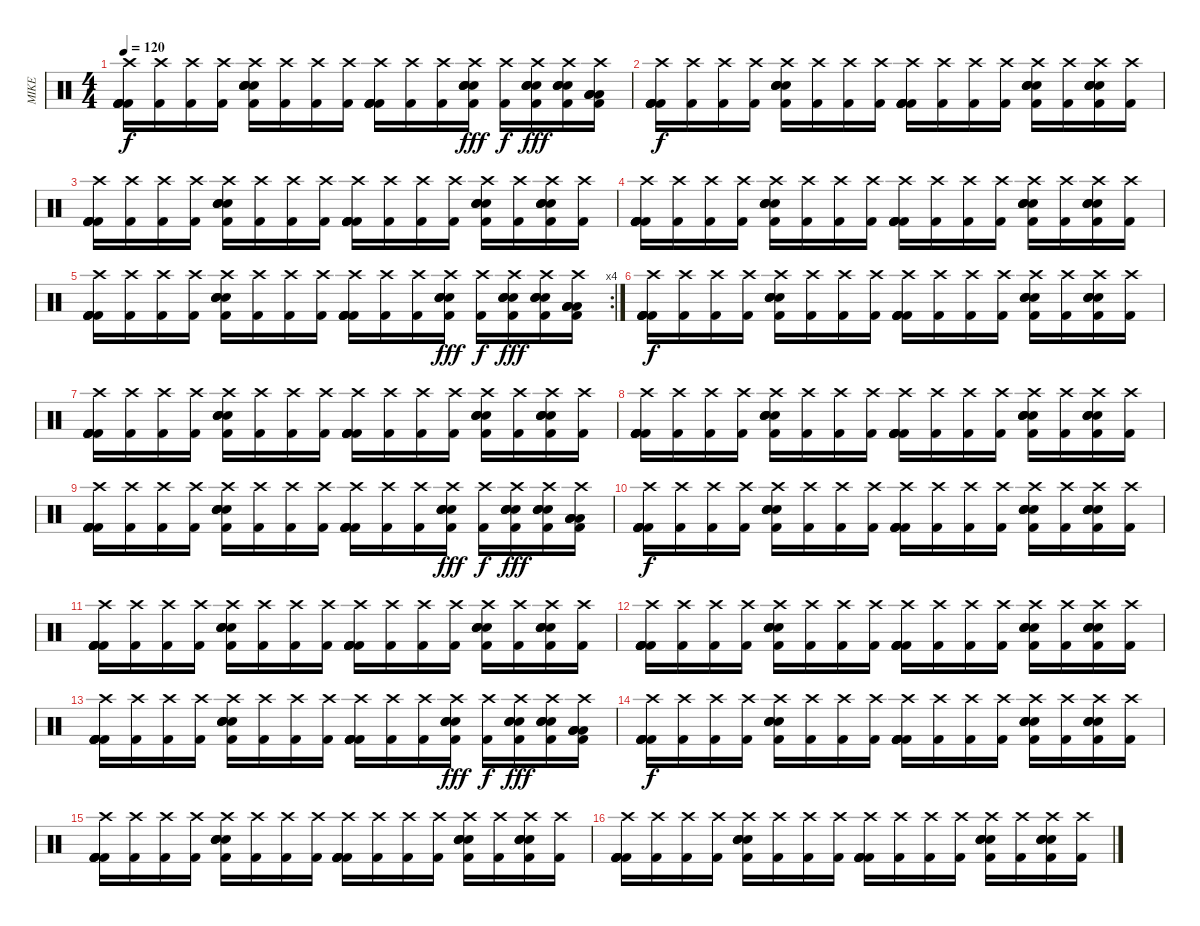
\track ("MIKE" "MIKE") {instrument percussion}
\staff {score}
\articulation defaults
\ts (4 4)
\tempo 120
\clef neutral
\ks c
("Kick (hit) 2" "Kick (hit) 2" "Kick (hit) 2" "Kick (hit) 2" "Kick (hit) 2" "Crash high (hit)").16{dy f} ("Kick (hit) 2" "Crash high (hit)").16 ("Kick (hit) 2" "Crash high (hit)").16 ("Kick (hit) 2" "Crash high (hit)").16 ("Electric Snare (hit)" "Electric Snare (hit)" "Electric Snare (hit)" "Electric Snare (hit)" "Kick (hit) 2" "Crash high (hit)").16 ("Kick (hit) 2" "Crash high (hit)").16 ("Kick (hit) 2" "Crash high (hit)").16 ("Kick (hit) 2" "Crash high (hit)").16 ("Kick (hit) 2" "Kick (hit) 2" "Kick (hit) 2" "Kick (hit) 2" "Kick (hit) 2" "Crash high (hit)").16 ("Kick (hit) 2" "Crash high (hit)").16 ("Kick (hit) 2" "Crash high (hit)").16 ("Electric Snare (hit)" "Electric Snare (hit)" "Electric Snare (hit)" "Electric Snare (hit)" "Kick (hit) 2" "Crash high (hit)").16{dy fff} ("Kick (hit) 2" "Crash high (hit)").16{dy f} ("Electric Snare (hit)" "Electric Snare (hit)" "Electric Snare (hit)" "Electric Snare (hit)" "Kick (hit) 2" "Crash high (hit)").16{dy fff} ("Electric Snare (hit)" "Electric Snare (hit)" "Electric Snare (hit)" "Electric Snare (hit)" "Kick (hit) 2" "Crash high (hit)").16 ("Low Floor Tom (hit)" "Low Floor Tom (hit)" "Low Floor Tom (hit)" "Low Floor Tom (hit)" "Kick (hit) 2" "Crash high (hit)").16 |
("Kick (hit) 2" "Kick (hit) 2" "Kick (hit) 2" "Kick (hit) 2" "Kick (hit) 2" "Crash high (hit)").16{dy f} ("Kick (hit) 2" "Crash high (hit)").16 ("Kick (hit) 2" "Crash high (hit)").16 ("Kick (hit) 2" "Crash high (hit)").16 ("Electric Snare (hit)" "Electric Snare (hit)" "Electric Snare (hit)" "Electric Snare (hit)" "Kick (hit) 2" "Crash high (hit)").16 ("Kick (hit) 2" "Crash high (hit)").16 ("Kick (hit) 2" "Crash high (hit)").16 ("Kick (hit) 2" "Crash high (hit)").16 ("Kick (hit) 2" "Kick (hit) 2" "Kick (hit) 2" "Kick (hit) 2" "Kick (hit) 2" "Crash high (hit)").16 ("Kick (hit) 2" "Crash high (hit)").16 ("Kick (hit) 2" "Crash high (hit)").16 ("Kick (hit) 2" "Crash high (hit)").16 ("Electric Snare (hit)" "Electric Snare (hit)" "Electric Snare (hit)" "Electric Snare (hit)" "Kick (hit) 2" "Crash high (hit)").16 ("Kick (hit) 2" "Crash high (hit)").16 ("Electric Snare (hit)" "Electric Snare (hit)" "Electric Snare (hit)" "Electric Snare (hit)" "Kick (hit) 2" "Crash high (hit)").16 ("Kick (hit) 2" "Crash high (hit)").16 |
("Kick (hit) 2" "Kick (hit) 2" "Kick (hit) 2" "Kick (hit) 2" "Kick (hit) 2" "Crash high (hit)").16 ("Kick (hit) 2" "Crash high (hit)").16 ("Kick (hit) 2" "Crash high (hit)").16 ("Kick (hit) 2" "Crash high (hit)").16 ("Electric Snare (hit)" "Electric Snare (hit)" "Electric Snare (hit)" "Electric Snare (hit)" "Kick (hit) 2" "Crash high (hit)").16 ("Kick (hit) 2" "Crash high (hit)").16 ("Kick (hit) 2" "Crash high (hit)").16 ("Kick (hit) 2" "Crash high (hit)").16 ("Kick (hit) 2" "Kick (hit) 2" "Kick (hit) 2" "Kick (hit) 2" "Kick (hit) 2" "Crash high (hit)").16 ("Kick (hit) 2" "Crash high (hit)").16 ("Kick (hit) 2" "Crash high (hit)").16 ("Kick (hit) 2" "Crash high (hit)").16 ("Electric Snare (hit)" "Electric Snare (hit)" "Electric Snare (hit)" "Electric Snare (hit)" "Kick (hit) 2" "Crash high (hit)").16 ("Kick (hit) 2" "Crash high (hit)").16 ("Electric Snare (hit)" "Electric Snare (hit)" "Electric Snare (hit)" "Electric Snare (hit)" "Kick (hit) 2" "Crash high (hit)").16 ("Kick (hit) 2" "Crash high (hit)").16 |
("Kick (hit) 2" "Kick (hit) 2" "Kick (hit) 2" "Kick (hit) 2" "Kick (hit) 2" "Crash high (hit)").16 ("Kick (hit) 2" "Crash high (hit)").16 ("Kick (hit) 2" "Crash high (hit)").16 ("Kick (hit) 2" "Crash high (hit)").16 ("Electric Snare (hit)" "Electric Snare (hit)" "Electric Snare (hit)" "Electric Snare (hit)" "Kick (hit) 2" "Crash high (hit)").16 ("Kick (hit) 2" "Crash high (hit)").16 ("Kick (hit) 2" "Crash high (hit)").16 ("Kick (hit) 2" "Crash high (hit)").16 ("Kick (hit) 2" "Kick (hit) 2" "Kick (hit) 2" "Kick (hit) 2" "Kick (hit) 2" "Crash high (hit)").16 ("Kick (hit) 2" "Crash high (hit)").16 ("Kick (hit) 2" "Crash high (hit)").16 ("Kick (hit) 2" "Crash high (hit)").16 ("Electric Snare (hit)" "Electric Snare (hit)" "Electric Snare (hit)" "Electric Snare (hit)" "Kick (hit) 2" "Crash high (hit)").16 ("Kick (hit) 2" "Crash high (hit)").16 ("Electric Snare (hit)" "Electric Snare (hit)" "Electric Snare (hit)" "Electric Snare (hit)" "Kick (hit) 2" "Crash high (hit)").16 ("Kick (hit) 2" "Crash high (hit)").16 |
\rc 4
("Kick (hit) 2" "Kick (hit) 2" "Kick (hit) 2" "Kick (hit) 2" "Kick (hit) 2" "Crash high (hit)").16 ("Kick (hit) 2" "Crash high (hit)").16 ("Kick (hit) 2" "Crash high (hit)").16 ("Kick (hit) 2" "Crash high (hit)").16 ("Electric Snare (hit)" "Electric Snare (hit)" "Electric Snare (hit)" "Electric Snare (hit)" "Kick (hit) 2" "Crash high (hit)").16 ("Kick (hit) 2" "Crash high (hit)").16 ("Kick (hit) 2" "Crash high (hit)").16 ("Kick (hit) 2" "Crash high (hit)").16 ("Kick (hit) 2" "Kick (hit) 2" "Kick (hit) 2" "Kick (hit) 2" "Kick (hit) 2" "Crash high (hit)").16 ("Kick (hit) 2" "Crash high (hit)").16 ("Kick (hit) 2" "Crash high (hit)").16 ("Electric Snare (hit)" "Electric Snare (hit)" "Electric Snare (hit)" "Electric Snare (hit)" "Kick (hit) 2" "Crash high (hit)").16{dy fff} ("Kick (hit) 2" "Crash high (hit)").16{dy f} ("Electric Snare (hit)" "Electric Snare (hit)" "Electric Snare (hit)" "Electric Snare (hit)" "Kick (hit) 2" "Crash high (hit)").16{dy fff} ("Electric Snare (hit)" "Electric Snare (hit)" "Electric Snare (hit)" "Electric Snare (hit)" "Kick (hit) 2" "Crash high (hit)").16 ("Low Floor Tom (hit)" "Low Floor Tom (hit)" "Low Floor Tom (hit)" "Low Floor Tom (hit)" "Kick (hit) 2" "Crash high (hit)").16 |
("Kick (hit) 2" "Kick (hit) 2" "Kick (hit) 2" "Kick (hit) 2" "Kick (hit) 2" "Crash high (hit)").16{dy f} ("Kick (hit) 2" "Crash high (hit)").16 ("Kick (hit) 2" "Crash high (hit)").16 ("Kick (hit) 2" "Crash high (hit)").16 ("Electric Snare (hit)" "Electric Snare (hit)" "Electric Snare (hit)" "Electric Snare (hit)" "Kick (hit) 2" "Crash high (hit)").16 ("Kick (hit) 2" "Crash high (hit)").16 ("Kick (hit) 2" "Crash high (hit)").16 ("Kick (hit) 2" "Crash high (hit)").16 ("Kick (hit) 2" "Kick (hit) 2" "Kick (hit) 2" "Kick (hit) 2" "Kick (hit) 2" "Crash high (hit)").16 ("Kick (hit) 2" "Crash high (hit)").16 ("Kick (hit) 2" "Crash high (hit)").16 ("Kick (hit) 2" "Crash high (hit)").16 ("Electric Snare (hit)" "Electric Snare (hit)" "Electric Snare (hit)" "Electric Snare (hit)" "Kick (hit) 2" "Crash high (hit)").16 ("Kick (hit) 2" "Crash high (hit)").16 ("Electric Snare (hit)" "Electric Snare (hit)" "Electric Snare (hit)" "Electric Snare (hit)" "Kick (hit) 2" "Crash high (hit)").16 ("Kick (hit) 2" "Crash high (hit)").16 |
("Kick (hit) 2" "Kick (hit) 2" "Kick (hit) 2" "Kick (hit) 2" "Kick (hit) 2" "Crash high (hit)").16 ("Kick (hit) 2" "Crash high (hit)").16 ("Kick (hit) 2" "Crash high (hit)").16 ("Kick (hit) 2" "Crash high (hit)").16 ("Electric Snare (hit)" "Electric Snare (hit)" "Electric Snare (hit)" "Electric Snare (hit)" "Kick (hit) 2" "Crash high (hit)").16 ("Kick (hit) 2" "Crash high (hit)").16 ("Kick (hit) 2" "Crash high (hit)").16 ("Kick (hit) 2" "Crash high (hit)").16 ("Kick (hit) 2" "Kick (hit) 2" "Kick (hit) 2" "Kick (hit) 2" "Kick (hit) 2" "Crash high (hit)").16 ("Kick (hit) 2" "Crash high (hit)").16 ("Kick (hit) 2" "Crash high (hit)").16 ("Kick (hit) 2" "Crash high (hit)").16 ("Electric Snare (hit)" "Electric Snare (hit)" "Electric Snare (hit)" "Electric Snare (hit)" "Kick (hit) 2" "Crash high (hit)").16 ("Kick (hit) 2" "Crash high (hit)").16 ("Electric Snare (hit)" "Electric Snare (hit)" "Electric Snare (hit)" "Electric Snare (hit)" "Kick (hit) 2" "Crash high (hit)").16 ("Kick (hit) 2" "Crash high (hit)").16 |
("Kick (hit) 2" "Kick (hit) 2" "Kick (hit) 2" "Kick (hit) 2" "Kick (hit) 2" "Crash high (hit)").16 ("Kick (hit) 2" "Crash high (hit)").16 ("Kick (hit) 2" "Crash high (hit)").16 ("Kick (hit) 2" "Crash high (hit)").16 ("Electric Snare (hit)" "Electric Snare (hit)" "Electric Snare (hit)" "Electric Snare (hit)" "Kick (hit) 2" "Crash high (hit)").16 ("Kick (hit) 2" "Crash high (hit)").16 ("Kick (hit) 2" "Crash high (hit)").16 ("Kick (hit) 2" "Crash high (hit)").16 ("Kick (hit) 2" "Kick (hit) 2" "Kick (hit) 2" "Kick (hit) 2" "Kick (hit) 2" "Crash high (hit)").16 ("Kick (hit) 2" "Crash high (hit)").16 ("Kick (hit) 2" "Crash high (hit)").16 ("Kick (hit) 2" "Crash high (hit)").16 ("Electric Snare (hit)" "Electric Snare (hit)" "Electric Snare (hit)" "Electric Snare (hit)" "Kick (hit) 2" "Crash high (hit)").16 ("Kick (hit) 2" "Crash high (hit)").16 ("Electric Snare (hit)" "Electric Snare (hit)" "Electric Snare (hit)" "Electric Snare (hit)" "Kick (hit) 2" "Crash high (hit)").16 ("Kick (hit) 2" "Crash high (hit)").16 |
("Kick (hit) 2" "Kick (hit) 2" "Kick (hit) 2" "Kick (hit) 2" "Kick (hit) 2" "Crash high (hit)").16 ("Kick (hit) 2" "Crash high (hit)").16 ("Kick (hit) 2" "Crash high (hit)").16 ("Kick (hit) 2" "Crash high (hit)").16 ("Electric Snare (hit)" "Electric Snare (hit)" "Electric Snare (hit)" "Electric Snare (hit)" "Kick (hit) 2" "Crash high (hit)").16 ("Kick (hit) 2" "Crash high (hit)").16 ("Kick (hit) 2" "Crash high (hit)").16 ("Kick (hit) 2" "Crash high (hit)").16 ("Kick (hit) 2" "Kick (hit) 2" "Kick (hit) 2" "Kick (hit) 2" "Kick (hit) 2" "Crash high (hit)").16 ("Kick (hit) 2" "Crash high (hit)").16 ("Kick (hit) 2" "Crash high (hit)").16 ("Electric Snare (hit)" "Electric Snare (hit)" "Electric Snare (hit)" "Electric Snare (hit)" "Kick (hit) 2" "Crash high (hit)").16{dy fff} ("Kick (hit) 2" "Crash high (hit)").16{dy f} ("Electric Snare (hit)" "Electric Snare (hit)" "Electric Snare (hit)" "Electric Snare (hit)" "Kick (hit) 2" "Crash high (hit)").16{dy fff} ("Electric Snare (hit)" "Electric Snare (hit)" "Electric Snare (hit)" "Electric Snare (hit)" "Kick (hit) 2" "Crash high (hit)").16 ("Low Floor Tom (hit)" "Low Floor Tom (hit)" "Low Floor Tom (hit)" "Low Floor Tom (hit)" "Kick (hit) 2" "Crash high (hit)").16 |
("Kick (hit) 2" "Kick (hit) 2" "Kick (hit) 2" "Kick (hit) 2" "Kick (hit) 2" "Crash high (hit)").16{dy f} ("Kick (hit) 2" "Crash high (hit)").16 ("Kick (hit) 2" "Crash high (hit)").16 ("Kick (hit) 2" "Crash high (hit)").16 ("Electric Snare (hit)" "Electric Snare (hit)" "Electric Snare (hit)" "Electric Snare (hit)" "Kick (hit) 2" "Crash high (hit)").16 ("Kick (hit) 2" "Crash high (hit)").16 ("Kick (hit) 2" "Crash high (hit)").16 ("Kick (hit) 2" "Crash high (hit)").16 ("Kick (hit) 2" "Kick (hit) 2" "Kick (hit) 2" "Kick (hit) 2" "Kick (hit) 2" "Crash high (hit)").16 ("Kick (hit) 2" "Crash high (hit)").16 ("Kick (hit) 2" "Crash high (hit)").16 ("Kick (hit) 2" "Crash high (hit)").16 ("Electric Snare (hit)" "Electric Snare (hit)" "Electric Snare (hit)" "Electric Snare (hit)" "Kick (hit) 2" "Crash high (hit)").16 ("Kick (hit) 2" "Crash high (hit)").16 ("Electric Snare (hit)" "Electric Snare (hit)" "Electric Snare (hit)" "Electric Snare (hit)" "Kick (hit) 2" "Crash high (hit)").16 ("Kick (hit) 2" "Crash high (hit)").16 |
("Kick (hit) 2" "Kick (hit) 2" "Kick (hit) 2" "Kick (hit) 2" "Kick (hit) 2" "Crash high (hit)").16 ("Kick (hit) 2" "Crash high (hit)").16 ("Kick (hit) 2" "Crash high (hit)").16 ("Kick (hit) 2" "Crash high (hit)").16 ("Electric Snare (hit)" "Electric Snare (hit)" "Electric Snare (hit)" "Electric Snare (hit)" "Kick (hit) 2" "Crash high (hit)").16 ("Kick (hit) 2" "Crash high (hit)").16 ("Kick (hit) 2" "Crash high (hit)").16 ("Kick (hit) 2" "Crash high (hit)").16 ("Kick (hit) 2" "Kick (hit) 2" "Kick (hit) 2" "Kick (hit) 2" "Kick (hit) 2" "Crash high (hit)").16 ("Kick (hit) 2" "Crash high (hit)").16 ("Kick (hit) 2" "Crash high (hit)").16 ("Kick (hit) 2" "Crash high (hit)").16 ("Electric Snare (hit)" "Electric Snare (hit)" "Electric Snare (hit)" "Electric Snare (hit)" "Kick (hit) 2" "Crash high (hit)").16 ("Kick (hit) 2" "Crash high (hit)").16 ("Electric Snare (hit)" "Electric Snare (hit)" "Electric Snare (hit)" "Electric Snare (hit)" "Kick (hit) 2" "Crash high (hit)").16 ("Kick (hit) 2" "Crash high (hit)").16 |
("Kick (hit) 2" "Kick (hit) 2" "Kick (hit) 2" "Kick (hit) 2" "Kick (hit) 2" "Crash high (hit)").16 ("Kick (hit) 2" "Crash high (hit)").16 ("Kick (hit) 2" "Crash high (hit)").16 ("Kick (hit) 2" "Crash high (hit)").16 ("Electric Snare (hit)" "Electric Snare (hit)" "Electric Snare (hit)" "Electric Snare (hit)" "Kick (hit) 2" "Crash high (hit)").16 ("Kick (hit) 2" "Crash high (hit)").16 ("Kick (hit) 2" "Crash high (hit)").16 ("Kick (hit) 2" "Crash high (hit)").16 ("Kick (hit) 2" "Kick (hit) 2" "Kick (hit) 2" "Kick (hit) 2" "Kick (hit) 2" "Crash high (hit)").16 ("Kick (hit) 2" "Crash high (hit)").16 ("Kick (hit) 2" "Crash high (hit)").16 ("Kick (hit) 2" "Crash high (hit)").16 ("Electric Snare (hit)" "Electric Snare (hit)" "Electric Snare (hit)" "Electric Snare (hit)" "Kick (hit) 2" "Crash high (hit)").16 ("Kick (hit) 2" "Crash high (hit)").16 ("Electric Snare (hit)" "Electric Snare (hit)" "Electric Snare (hit)" "Electric Snare (hit)" "Kick (hit) 2" "Crash high (hit)").16 ("Kick (hit) 2" "Crash high (hit)").16 |
("Kick (hit) 2" "Kick (hit) 2" "Kick (hit) 2" "Kick (hit) 2" "Kick (hit) 2" "Crash high (hit)").16 ("Kick (hit) 2" "Crash high (hit)").16 ("Kick (hit) 2" "Crash high (hit)").16 ("Kick (hit) 2" "Crash high (hit)").16 ("Electric Snare (hit)" "Electric Snare (hit)" "Electric Snare (hit)" "Electric Snare (hit)" "Kick (hit) 2" "Crash high (hit)").16 ("Kick (hit) 2" "Crash high (hit)").16 ("Kick (hit) 2" "Crash high (hit)").16 ("Kick (hit) 2" "Crash high (hit)").16 ("Kick (hit) 2" "Kick (hit) 2" "Kick (hit) 2" "Kick (hit) 2" "Kick (hit) 2" "Crash high (hit)").16 ("Kick (hit) 2" "Crash high (hit)").16 ("Kick (hit) 2" "Crash high (hit)").16 ("Electric Snare (hit)" "Electric Snare (hit)" "Electric Snare (hit)" "Electric Snare (hit)" "Kick (hit) 2" "Crash high (hit)").16{dy fff} ("Kick (hit) 2" "Crash high (hit)").16{dy f} ("Electric Snare (hit)" "Electric Snare (hit)" "Electric Snare (hit)" "Electric Snare (hit)" "Kick (hit) 2" "Crash high (hit)").16{dy fff} ("Electric Snare (hit)" "Electric Snare (hit)" "Electric Snare (hit)" "Electric Snare (hit)" "Kick (hit) 2" "Crash high (hit)").16 ("Low Floor Tom (hit)" "Low Floor Tom (hit)" "Low Floor Tom (hit)" "Low Floor Tom (hit)" "Kick (hit) 2" "Crash high (hit)").16 |
("Kick (hit) 2" "Kick (hit) 2" "Kick (hit) 2" "Kick (hit) 2" "Kick (hit) 2" "Crash high (hit)").16{dy f} ("Kick (hit) 2" "Crash high (hit)").16 ("Kick (hit) 2" "Crash high (hit)").16 ("Kick (hit) 2" "Crash high (hit)").16 ("Electric Snare (hit)" "Electric Snare (hit)" "Electric Snare (hit)" "Electric Snare (hit)" "Kick (hit) 2" "Crash high (hit)").16 ("Kick (hit) 2" "Crash high (hit)").16 ("Kick (hit) 2" "Crash high (hit)").16 ("Kick (hit) 2" "Crash high (hit)").16 ("Kick (hit) 2" "Kick (hit) 2" "Kick (hit) 2" "Kick (hit) 2" "Kick (hit) 2" "Crash high (hit)").16 ("Kick (hit) 2" "Crash high (hit)").16 ("Kick (hit) 2" "Crash high (hit)").16 ("Kick (hit) 2" "Crash high (hit)").16 ("Electric Snare (hit)" "Electric Snare (hit)" "Electric Snare (hit)" "Electric Snare (hit)" "Kick (hit) 2" "Crash high (hit)").16 ("Kick (hit) 2" "Crash high (hit)").16 ("Electric Snare (hit)" "Electric Snare (hit)" "Electric Snare (hit)" "Electric Snare (hit)" "Kick (hit) 2" "Crash high (hit)").16 ("Kick (hit) 2" "Crash high (hit)").16 |
("Kick (hit) 2" "Kick (hit) 2" "Kick (hit) 2" "Kick (hit) 2" "Kick (hit) 2" "Crash high (hit)").16 ("Kick (hit) 2" "Crash high (hit)").16 ("Kick (hit) 2" "Crash high (hit)").16 ("Kick (hit) 2" "Crash high (hit)").16 ("Electric Snare (hit)" "Electric Snare (hit)" "Electric Snare (hit)" "Electric Snare (hit)" "Kick (hit) 2" "Crash high (hit)").16 ("Kick (hit) 2" "Crash high (hit)").16 ("Kick (hit) 2" "Crash high (hit)").16 ("Kick (hit) 2" "Crash high (hit)").16 ("Kick (hit) 2" "Kick (hit) 2" "Kick (hit) 2" "Kick (hit) 2" "Kick (hit) 2" "Crash high (hit)").16 ("Kick (hit) 2" "Crash high (hit)").16 ("Kick (hit) 2" "Crash high (hit)").16 ("Kick (hit) 2" "Crash high (hit)").16 ("Electric Snare (hit)" "Electric Snare (hit)" "Electric Snare (hit)" "Electric Snare (hit)" "Kick (hit) 2" "Crash high (hit)").16 ("Kick (hit) 2" "Crash high (hit)").16 ("Electric Snare (hit)" "Electric Snare (hit)" "Electric Snare (hit)" "Electric Snare (hit)" "Kick (hit) 2" "Crash high (hit)").16 ("Kick (hit) 2" "Crash high (hit)").16 |
("Kick (hit) 2" "Kick (hit) 2" "Kick (hit) 2" "Kick (hit) 2" "Kick (hit) 2" "Crash high (hit)").16 ("Kick (hit) 2" "Crash high (hit)").16 ("Kick (hit) 2" "Crash high (hit)").16 ("Kick (hit) 2" "Crash high (hit)").16 ("Electric Snare (hit)" "Electric Snare (hit)" "Electric Snare (hit)" "Electric Snare (hit)" "Kick (hit) 2" "Crash high (hit)").16 ("Kick (hit) 2" "Crash high (hit)").16 ("Kick (hit) 2" "Crash high (hit)").16 ("Kick (hit) 2" "Crash high (hit)").16 ("Kick (hit) 2" "Kick (hit) 2" "Kick (hit) 2" "Kick (hit) 2" "Kick (hit) 2" "Crash high (hit)").16 ("Kick (hit) 2" "Crash high (hit)").16 ("Kick (hit) 2" "Crash high (hit)").16 ("Kick (hit) 2" "Crash high (hit)").16 ("Electric Snare (hit)" "Electric Snare (hit)" "Electric Snare (hit)" "Electric Snare (hit)" "Kick (hit) 2" "Crash high (hit)").16 ("Kick (hit) 2" "Crash high (hit)").16 ("Electric Snare (hit)" "Electric Snare (hit)" "Electric Snare (hit)" "Electric Snare (hit)" "Kick (hit) 2" "Crash high (hit)").16 ("Kick (hit) 2" "Crash high (hit)").16
